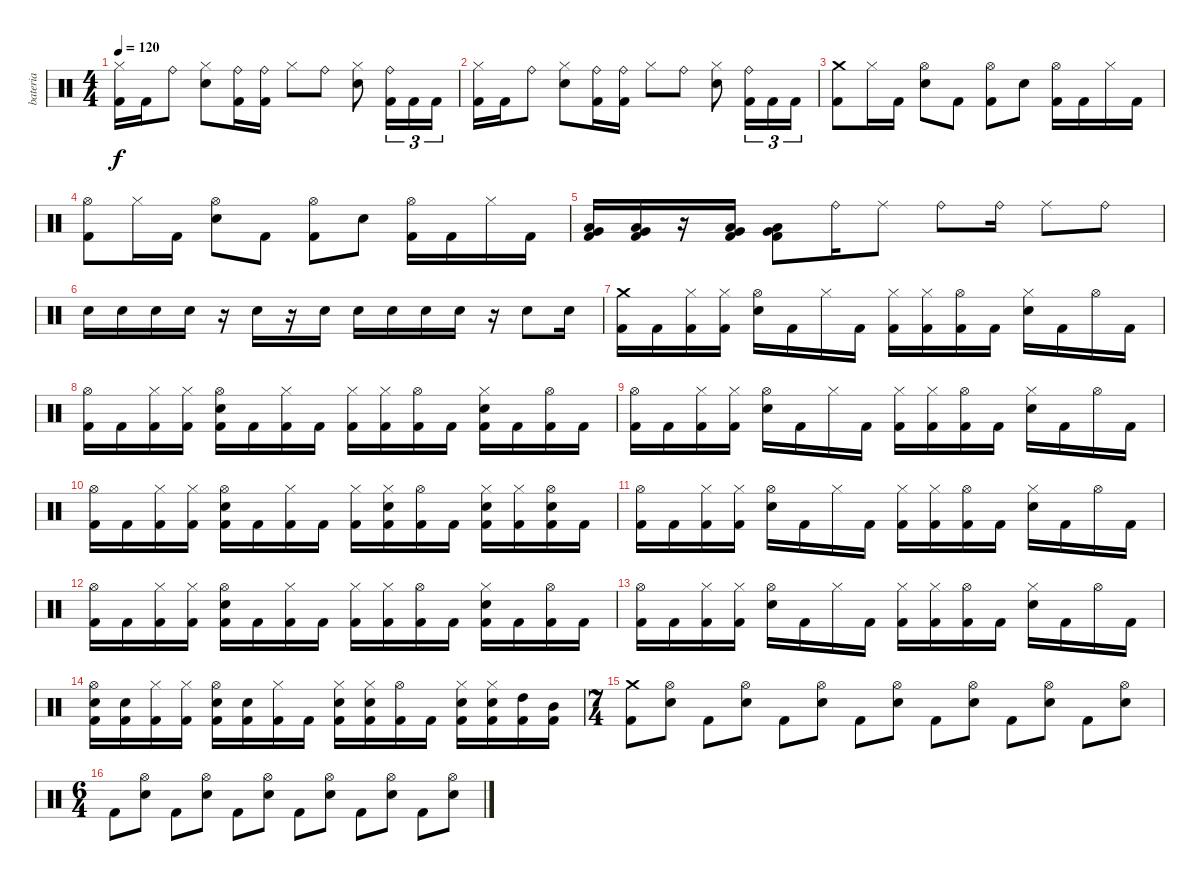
\track ("bateria" "bateria") {instrument percussion}
\staff {score}
\articulation defaults
\ts (4 4)
\tempo 120
\clef neutral
\ks c
("Hi-Hat (closed)" "Kick (hit) 2").16{dy f} "Kick (hit) 2".16 "Ride (bell)".8 ("Hi-Hat (closed)" "Electric Snare (hit)").8 ("Ride (bell)" "Kick (hit) 2").16 ("Ride (bell)" "Kick (hit) 2").16 "Hi-Hat (closed)".8 "Ride (bell)".8 ("Hi-Hat (closed)" "Electric Snare (hit)").8 ("Ride (bell)" "Kick (hit) 2").16{tu (3 2)} "Kick (hit) 2".16{tu (3 2)} "Kick (hit) 2".16{tu (3 2)} |
("Hi-Hat (closed)" "Kick (hit) 2").16 "Kick (hit) 2".16 "Ride (bell)".8 ("Hi-Hat (closed)" "Electric Snare (hit)").8 ("Ride (bell)" "Kick (hit) 2").16 ("Ride (bell)" "Kick (hit) 2").16 "Hi-Hat (closed)".8 "Ride (bell)".8 ("Hi-Hat (closed)" "Electric Snare (hit)").8 ("Ride (bell)" "Kick (hit) 2").16{tu (3 2)} "Kick (hit) 2".16{tu (3 2)} "Kick (hit) 2".16{tu (3 2)} |
("Crash medium (hit)" "Kick (hit) 2").8 "Hi-Hat (closed)".16 "Kick (hit) 2".16 ("Hi-Hat (open)" "Electric Snare (hit)").8 "Kick (hit) 2".8 ("Hi-Hat (open)" "Kick (hit) 2").8 "Electric Snare (hit)".8 ("Hi-Hat (open)" "Kick (hit) 2").16 "Kick (hit) 2".16 "Hi-Hat (closed)".16 "Kick (hit) 2".16 |
("Hi-Hat (open)" "Kick (hit) 2").8 "Hi-Hat (closed)".16 "Kick (hit) 2".16 ("Hi-Hat (open)" "Electric Snare (hit)").8 "Kick (hit) 2".8 ("Hi-Hat (open)" "Kick (hit) 2").8 "Electric Snare (hit)".8 ("Hi-Hat (open)" "Kick (hit) 2").16 "Kick (hit) 2".16 "Hi-Hat (closed)".16 "Kick (hit) 2".16 |
("Very Low Tom (hit)" "Low Floor Tom (hit)" "Kick (hit) 2").16 ("Very Low Tom (hit)" "Low Floor Tom (hit)" "Kick (hit) 2").16 r.16 ("Very Low Tom (hit)" "Low Floor Tom (hit)" "Kick (hit) 2").16 ("Very Low Tom (hit)" "Low Floor Tom (hit)" "Kick (hit) 2").8 "Ride (bell)".16 "Ride (middle)".8 "Ride (bell)".8 "Ride (bell)".16 "Ride (middle)".8 "Ride (bell)".8 |
"Electric Snare (hit)".16 "Electric Snare (hit)".16 "Electric Snare (hit)".16 "Electric Snare (hit)".16 r.16 "Electric Snare (hit)".16 r.16 "Electric Snare (hit)".16 "Electric Snare (hit)".16 "Electric Snare (hit)".16 "Electric Snare (hit)".16 "Electric Snare (hit)".16 r.16 "Electric Snare (hit)".8 "Electric Snare (hit)".16 |
("Crash medium (hit)" "Kick (hit) 2").16 "Kick (hit) 2".16 ("Hi-Hat (closed)" "Kick (hit) 2").16 ("Hi-Hat (closed)" "Kick (hit) 2").16 ("Hi-Hat (open)" "Electric Snare (hit)").16 "Kick (hit) 2".16 "Hi-Hat (closed)".16 "Kick (hit) 2".16 ("Hi-Hat (closed)" "Kick (hit) 2").16 ("Hi-Hat (closed)" "Kick (hit) 2").16 ("Hi-Hat (open)" "Kick (hit) 2").16 "Kick (hit) 2".16 ("Hi-Hat (closed)" "Electric Snare (hit)").16 "Kick (hit) 2".16 "Hi-Hat (open)".16 "Kick (hit) 2".16 |
("Hi-Hat (open)" "Kick (hit) 2").16 "Kick (hit) 2".16 ("Hi-Hat (closed)" "Kick (hit) 2").16 ("Hi-Hat (closed)" "Kick (hit) 2").16 ("Hi-Hat (open)" "Electric Snare (hit)" "Kick (hit) 2").16 "Kick (hit) 2".16 ("Hi-Hat (closed)" "Kick (hit) 2").16 "Kick (hit) 2".16 ("Hi-Hat (closed)" "Kick (hit) 2").16 ("Hi-Hat (closed)" "Kick (hit) 2").16 ("Hi-Hat (open)" "Kick (hit) 2").16 "Kick (hit) 2".16 ("Hi-Hat (closed)" "Electric Snare (hit)" "Kick (hit) 2").16 "Kick (hit) 2".16 ("Hi-Hat (open)" "Kick (hit) 2").16 "Kick (hit) 2".16 |
("Hi-Hat (open)" "Kick (hit) 2").16 "Kick (hit) 2".16 ("Hi-Hat (closed)" "Kick (hit) 2").16 ("Hi-Hat (closed)" "Kick (hit) 2").16 ("Hi-Hat (open)" "Electric Snare (hit)").16 "Kick (hit) 2".16 "Hi-Hat (closed)".16 "Kick (hit) 2".16 ("Hi-Hat (closed)" "Kick (hit) 2").16 ("Hi-Hat (closed)" "Kick (hit) 2").16 ("Hi-Hat (open)" "Kick (hit) 2").16 "Kick (hit) 2".16 ("Hi-Hat (closed)" "Electric Snare (hit)").16 "Kick (hit) 2".16 "Hi-Hat (open)".16 "Kick (hit) 2".16 |
("Hi-Hat (open)" "Kick (hit) 2").16 "Kick (hit) 2".16 ("Hi-Hat (closed)" "Kick (hit) 2").16 ("Hi-Hat (closed)" "Kick (hit) 2").16 ("Hi-Hat (open)" "Electric Snare (hit)" "Kick (hit) 2").16 "Kick (hit) 2".16 ("Hi-Hat (closed)" "Kick (hit) 2").16 "Kick (hit) 2".16 ("Hi-Hat (closed)" "Kick (hit) 2").16 ("Hi-Hat (closed)" "Electric Snare (hit)" "Kick (hit) 2").16 ("Hi-Hat (open)" "Kick (hit) 2").16 "Kick (hit) 2".16 ("Hi-Hat (closed)" "Electric Snare (hit)" "Kick (hit) 2").16 ("Hi-Hat (closed)" "Kick (hit) 2").16 ("Hi-Hat (open)" "Electric Snare (hit)" "Kick (hit) 2").16 "Kick (hit) 2".16 |
("Hi-Hat (open)" "Kick (hit) 2").16 "Kick (hit) 2".16 ("Hi-Hat (closed)" "Kick (hit) 2").16 ("Hi-Hat (closed)" "Kick (hit) 2").16 ("Hi-Hat (open)" "Electric Snare (hit)").16 "Kick (hit) 2".16 "Hi-Hat (closed)".16 "Kick (hit) 2".16 ("Hi-Hat (closed)" "Kick (hit) 2").16 ("Hi-Hat (closed)" "Kick (hit) 2").16 ("Hi-Hat (open)" "Kick (hit) 2").16 "Kick (hit) 2".16 ("Hi-Hat (closed)" "Electric Snare (hit)").16 "Kick (hit) 2".16 "Hi-Hat (open)".16 "Kick (hit) 2".16 |
("Hi-Hat (open)" "Kick (hit) 2").16 "Kick (hit) 2".16 ("Hi-Hat (closed)" "Kick (hit) 2").16 ("Hi-Hat (closed)" "Kick (hit) 2").16 ("Hi-Hat (open)" "Electric Snare (hit)" "Kick (hit) 2").16 "Kick (hit) 2".16 ("Hi-Hat (closed)" "Kick (hit) 2").16 "Kick (hit) 2".16 ("Hi-Hat (closed)" "Kick (hit) 2").16 ("Hi-Hat (closed)" "Kick (hit) 2").16 ("Hi-Hat (open)" "Kick (hit) 2").16 "Kick (hit) 2".16 ("Hi-Hat (closed)" "Electric Snare (hit)" "Kick (hit) 2").16 "Kick (hit) 2".16 ("Hi-Hat (open)" "Kick (hit) 2").16 "Kick (hit) 2".16 |
("Hi-Hat (open)" "Kick (hit) 2").16 "Kick (hit) 2".16 ("Hi-Hat (closed)" "Kick (hit) 2").16 ("Hi-Hat (closed)" "Kick (hit) 2").16 ("Hi-Hat (open)" "Electric Snare (hit)").16 "Kick (hit) 2".16 "Hi-Hat (closed)".16 "Kick (hit) 2".16 ("Hi-Hat (closed)" "Kick (hit) 2").16 ("Hi-Hat (closed)" "Kick (hit) 2").16 ("Hi-Hat (open)" "Kick (hit) 2").16 "Kick (hit) 2".16 ("Hi-Hat (closed)" "Electric Snare (hit)").16 "Kick (hit) 2".16 "Hi-Hat (open)".16 "Kick (hit) 2".16 |
("Hi-Hat (open)" "Electric Snare (hit)" "Kick (hit) 2").16 ("Electric Snare (hit)" "Kick (hit) 2").16 ("Hi-Hat (closed)" "Kick (hit) 2").16 ("Hi-Hat (closed)" "Kick (hit) 2").16 ("Hi-Hat (open)" "Electric Snare (hit)" "Kick (hit) 2").16 ("Electric Snare (hit)" "Kick (hit) 2").16 ("Hi-Hat (closed)" "Kick (hit) 2").16 "Kick (hit) 2".16 ("Hi-Hat (closed)" "Electric Snare (hit)" "Kick (hit) 2").16 ("Hi-Hat (closed)" "Electric Snare (hit)" "Kick (hit) 2").16 ("Hi-Hat (open)" "Kick (hit) 2").16 "Kick (hit) 2".16 ("Hi-Hat (closed)" "Electric Snare (hit)" "Kick (hit) 2").16 ("Hi-Hat (closed)" "Electric Snare (hit)" "Kick (hit) 2").16 ("High Tom (hit)" "Kick (hit) 2").16 ("Mid Tom (hit)" "Kick (hit) 2").16 |
\ts (7 4)
("Crash medium (hit)" "Kick (hit) 2").8 ("Hi-Hat (open)" "Electric Snare (hit)").8 "Kick (hit) 2".8 ("Hi-Hat (open)" "Electric Snare (hit)").8 "Kick (hit) 2".8 ("Hi-Hat (open)" "Electric Snare (hit)").8 "Kick (hit) 2".8 ("Hi-Hat (open)" "Electric Snare (hit)").8 "Kick (hit) 2".8 ("Hi-Hat (open)" "Electric Snare (hit)").8 "Kick (hit) 2".8 ("Hi-Hat (open)" "Electric Snare (hit)").8 "Kick (hit) 2".8 ("Hi-Hat (open)" "Electric Snare (hit)").8 |
\ts (6 4)
"Kick (hit) 2".8 ("Hi-Hat (open)" "Electric Snare (hit)").8 "Kick (hit) 2".8 ("Hi-Hat (open)" "Electric Snare (hit)").8 "Kick (hit) 2".8 ("Hi-Hat (open)" "Electric Snare (hit)").8 "Kick (hit) 2".8 ("Hi-Hat (open)" "Electric Snare (hit)").8 "Kick (hit) 2".8 ("Hi-Hat (open)" "Electric Snare (hit)").8 "Kick (hit) 2".8 ("Hi-Hat (open)" "Electric Snare (hit)").8
